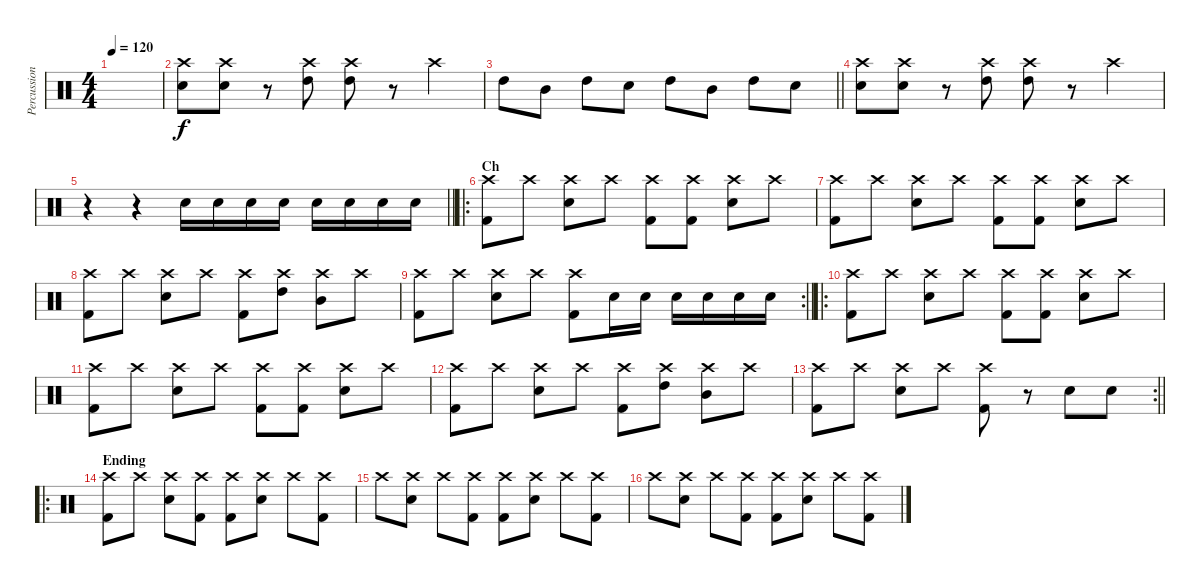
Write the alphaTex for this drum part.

\track ("Percussion" "Percussion") {instrument percussion}
\staff {score}
\articulation defaults
\ts (4 4)
\tempo 120
\clef neutral
\ks c
|
("Crash high (hit)" "Snare (hit) 2").8 ("Crash high (hit)" "Snare (hit) 2").8 r.8 ("Crash high (hit)" "High Tom (hit)").8 ("Crash high (hit)" "High Tom (hit)").8 r.8 "Crash high (hit)".4 |
\barLineRight lightlight "High Tom (hit)".8 "Mid Tom (hit)".8 "High Tom (hit)".8 "Snare (hit) 2".8 "High Tom (hit)".8 "Mid Tom (hit)".8 "High Tom (hit)".8 "Snare (hit) 2".8
|
("Crash high (hit)" "Snare (hit) 2").8 ("Crash high (hit)" "Snare (hit) 2").8 r.8 ("Crash high (hit)" "High Tom (hit)").8 ("Crash high (hit)" "High Tom (hit)").8 r.8 "Crash high (hit)".4 |
\barLineRight lightlight
r.4 r.4 "Snare (hit) 2".16 "Snare (hit) 2".16 "Snare (hit) 2".16 "Snare (hit) 2".16 "Snare (hit) 2".16 "Snare (hit) 2".16 "Snare (hit) 2".16 "Snare (hit) 2".16 |
\ro
\section ("" "Ch")
("Crash high (hit)" "Kick (hit) 2").8 "Crash high (hit)".8 ("Crash high (hit)" "Snare (hit) 2").8 "Crash high (hit)".8 ("Crash high (hit)" "Kick (hit) 2").8 ("Crash high (hit)" "Kick (hit) 2").8 ("Crash high (hit)" "Snare (hit) 2").8 "Crash high (hit)".8 |
("Crash high (hit)" "Kick (hit) 2").8 "Crash high (hit)".8 ("Crash high (hit)" "Snare (hit) 2").8 "Crash high (hit)".8 ("Crash high (hit)" "Kick (hit) 2").8 ("Crash high (hit)" "Kick (hit) 2").8 ("Crash high (hit)" "Snare (hit) 2").8 "Crash high (hit)".8 |
("Crash high (hit)" "Kick (hit) 2").8 "Crash high (hit)".8 ("Crash high (hit)" "Snare (hit) 2").8 "Crash high (hit)".8 ("Crash high (hit)" "Kick (hit) 2").8 ("Crash high (hit)" "High Tom (hit)").8 ("Crash high (hit)" "Mid Tom (hit)").8 "Crash high (hit)".8 |
\rc 2
\barLineRight lightlight
("Crash high (hit)" "Kick (hit) 2").8 "Crash high (hit)".8 ("Crash high (hit)" "Snare (hit) 2").8 "Crash high (hit)".8 ("Crash high (hit)" "Kick (hit) 2").8 "Snare (hit) 2".16 "Snare (hit) 2".16 "Snare (hit) 2".16 "Snare (hit) 2".16 "Snare (hit) 2".16 "Snare (hit) 2".16 |
\ro
("Crash high (hit)" "Kick (hit) 2").8 "Crash high (hit)".8 ("Crash high (hit)" "Snare (hit) 2").8 "Crash high (hit)".8 ("Crash high (hit)" "Kick (hit) 2").8 ("Crash high (hit)" "Kick (hit) 2").8 ("Crash high (hit)" "Snare (hit) 2").8 "Crash high (hit)".8 |
("Crash high (hit)" "Kick (hit) 2").8 "Crash high (hit)".8 ("Crash high (hit)" "Snare (hit) 2").8 "Crash high (hit)".8 ("Crash high (hit)" "Kick (hit) 2").8 ("Crash high (hit)" "Kick (hit) 2").8 ("Crash high (hit)" "Snare (hit) 2").8 "Crash high (hit)".8 |
("Crash high (hit)" "Kick (hit) 2").8 "Crash high (hit)".8 ("Crash high (hit)" "Snare (hit) 2").8 "Crash high (hit)".8 ("Crash high (hit)" "Kick (hit) 2").8 ("Crash high (hit)" "High Tom (hit)").8 ("Crash high (hit)" "Mid Tom (hit)").8 "Crash high (hit)".8 |
\rc 2
\barLineRight lightlight
("Crash high (hit)" "Kick (hit) 2").8 "Crash high (hit)".8 ("Crash high (hit)" "Snare (hit) 2").8 "Crash high (hit)".8 ("Crash high (hit)" "Kick (hit) 2").8 r.8 "Snare (hit) 2".8 "Snare (hit) 2".8 |
\ro
\section ("" "Ending")
("Crash high (hit)" "Kick (hit) 2").8 "Crash high (hit)".8 ("Crash high (hit)" "Snare (hit) 2").8 ("Crash high (hit)" "Kick (hit) 2").8 ("Crash high (hit)" "Kick (hit) 2").8 ("Crash high (hit)" "Snare (hit) 2").8 "Crash high (hit)".8 ("Crash high (hit)" "Kick (hit) 2").8 |
"Crash high (hit)".8 ("Crash high (hit)" "Snare (hit) 2").8 "Crash high (hit)".8 ("Crash high (hit)" "Kick (hit) 2").8 ("Crash high (hit)" "Kick (hit) 2").8 ("Crash high (hit)" "Snare (hit) 2").8 "Crash high (hit)".8 ("Crash high (hit)" "Kick (hit) 2").8 |
"Crash high (hit)".8 ("Crash high (hit)" "Snare (hit) 2").8 "Crash high (hit)".8 ("Crash high (hit)" "Kick (hit) 2").8 ("Crash high (hit)" "Kick (hit) 2").8 ("Crash high (hit)" "Snare (hit) 2").8 "Crash high (hit)".8 ("Crash high (hit)" "Kick (hit) 2").8
